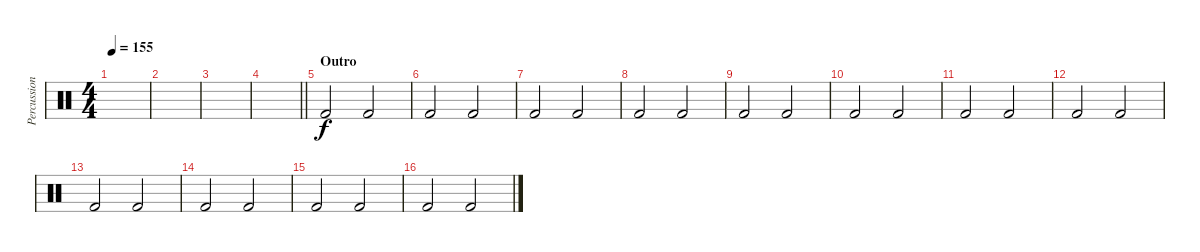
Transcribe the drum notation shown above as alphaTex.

\track ("Percussion" "Percussion") {instrument percussion}
\staff {score}
\articulation defaults
\ts (4 4)
\tempo 155
\clef neutral
\ks c
|
|
|
\barLineRight lightlight
|
\section ("" "Outro")
"Kick (hit) 2".2 "Kick (hit) 2".2 |
"Kick (hit) 2".2 "Kick (hit) 2".2 |
"Kick (hit) 2".2 "Kick (hit) 2".2 |
"Kick (hit) 2".2 "Kick (hit) 2".2 |
"Kick (hit) 2".2 "Kick (hit) 2".2 |
"Kick (hit) 2".2 "Kick (hit) 2".2 |
"Kick (hit) 2".2 "Kick (hit) 2".2 |
"Kick (hit) 2".2 "Kick (hit) 2".2 |
"Kick (hit) 2".2 "Kick (hit) 2".2 |
"Kick (hit) 2".2 "Kick (hit) 2".2 |
"Kick (hit) 2".2 "Kick (hit) 2".2 |
"Kick (hit) 2".2 "Kick (hit) 2".2
